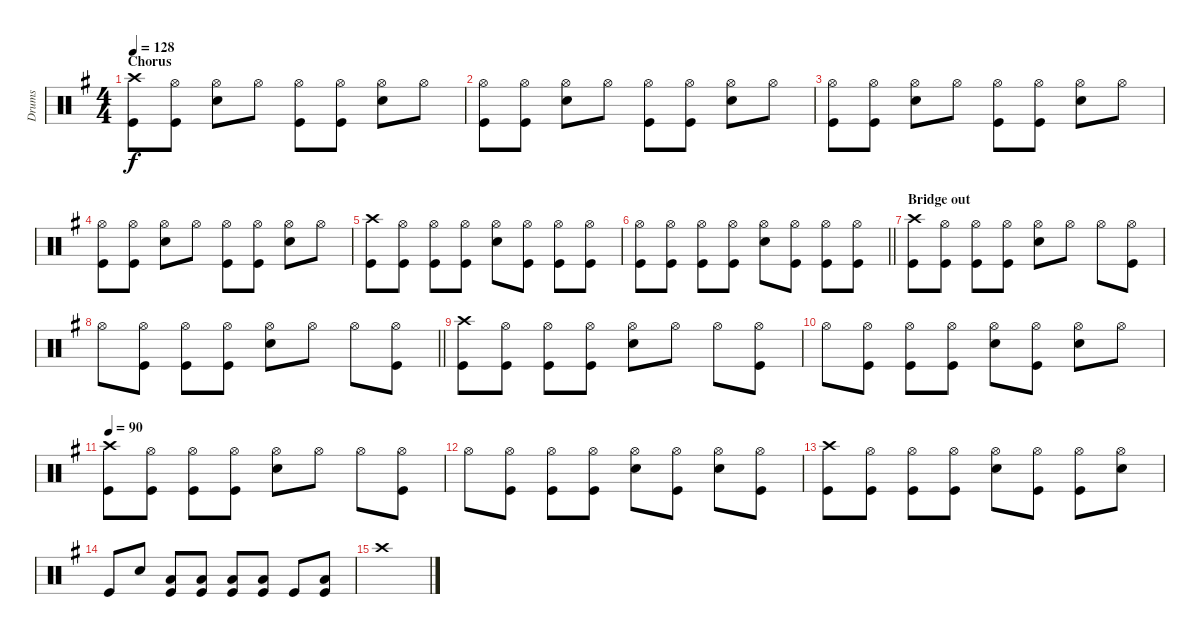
\track ("Drums" "Drums") {instrument percussion}
\staff {score}
\articulation defaults
\ts (4 4)
\section ("" "Chorus")
\tempo 128
\clef neutral
\ks g
("Crash high (hit)" "Kick (hit)").8{dy f} ("Hi-Hat (open)" "Kick (hit)").8 ("Hi-Hat (open)" "Electric Snare (hit)").8 "Hi-Hat (open)".8 ("Hi-Hat (open)" "Kick (hit)").8 ("Hi-Hat (open)" "Kick (hit)").8 ("Hi-Hat (open)" "Electric Snare (hit)").8 "Hi-Hat (open)".8 |
("Hi-Hat (open)" "Kick (hit)").8 ("Hi-Hat (open)" "Kick (hit)").8 ("Hi-Hat (open)" "Electric Snare (hit)").8 "Hi-Hat (open)".8 ("Hi-Hat (open)" "Kick (hit)").8 ("Hi-Hat (open)" "Kick (hit)").8 ("Hi-Hat (open)" "Electric Snare (hit)").8 "Hi-Hat (open)".8 |
("Hi-Hat (open)" "Kick (hit)").8 ("Hi-Hat (open)" "Kick (hit)").8 ("Hi-Hat (open)" "Electric Snare (hit)").8 "Hi-Hat (open)".8 ("Hi-Hat (open)" "Kick (hit)").8 ("Hi-Hat (open)" "Kick (hit)").8 ("Hi-Hat (open)" "Electric Snare (hit)").8 "Hi-Hat (open)".8 |
("Hi-Hat (open)" "Kick (hit)").8 ("Hi-Hat (open)" "Kick (hit)").8 ("Hi-Hat (open)" "Electric Snare (hit)").8 "Hi-Hat (open)".8 ("Hi-Hat (open)" "Kick (hit)").8 ("Hi-Hat (open)" "Kick (hit)").8 ("Hi-Hat (open)" "Electric Snare (hit)").8 "Hi-Hat (open)".8 |
("Crash high (hit)" "Kick (hit)").8 ("Hi-Hat (open)" "Kick (hit)").8 ("Hi-Hat (open)" "Kick (hit)").8 ("Hi-Hat (open)" "Kick (hit)").8 ("Hi-Hat (open)" "Electric Snare (hit)").8 ("Hi-Hat (open)" "Kick (hit)").8 ("Hi-Hat (open)" "Kick (hit)").8 ("Hi-Hat (open)" "Kick (hit)").8 |
\barLineRight lightlight
("Hi-Hat (open)" "Kick (hit)").8 ("Hi-Hat (open)" "Kick (hit)").8 ("Hi-Hat (open)" "Kick (hit)").8 ("Hi-Hat (open)" "Kick (hit)").8 ("Hi-Hat (open)" "Electric Snare (hit)").8 ("Hi-Hat (open)" "Kick (hit)").8 ("Hi-Hat (open)" "Kick (hit)").8 ("Hi-Hat (open)" "Kick (hit)").8 |
\section ("" "Bridge out")
("Crash high (hit)" "Kick (hit)").8 ("Hi-Hat (open)" "Kick (hit)").8 ("Hi-Hat (open)" "Kick (hit)").8 ("Hi-Hat (open)" "Kick (hit)").8 ("Hi-Hat (open)" "Electric Snare (hit)").8 "Hi-Hat (open)".8 "Hi-Hat (open)".8 ("Hi-Hat (open)" "Kick (hit)").8 |
\barLineRight lightlight "Hi-Hat (open)".8
("Hi-Hat (open)" "Kick (hit)").8 ("Hi-Hat (open)" "Kick (hit)").8 ("Hi-Hat (open)" "Kick (hit)").8 ("Hi-Hat (open)" "Electric Snare (hit)").8 "Hi-Hat (open)".8 "Hi-Hat (open)".8 ("Hi-Hat (open)" "Kick (hit)").8 |
("Crash high (hit)" "Kick (hit)").8 ("Hi-Hat (open)" "Kick (hit)").8 ("Hi-Hat (open)" "Kick (hit)").8 ("Hi-Hat (open)" "Kick (hit)").8 ("Hi-Hat (open)" "Electric Snare (hit)").8 "Hi-Hat (open)".8 "Hi-Hat (open)".8 ("Hi-Hat (open)" "Kick (hit)").8 |
"Hi-Hat (open)".8 ("Hi-Hat (open)" "Kick (hit)").8 ("Hi-Hat (open)" "Kick (hit)").8 ("Hi-Hat (open)" "Kick (hit)").8 ("Hi-Hat (open)" "Electric Snare (hit)").8 ("Hi-Hat (open)" "Kick (hit)").8 ("Hi-Hat (open)" "Electric Snare (hit)").8 "Hi-Hat (open)".8 |
\tempo 90
("Crash high (hit)" "Kick (hit)").8 ("Hi-Hat (open)" "Kick (hit)").8 ("Hi-Hat (open)" "Kick (hit)").8 ("Hi-Hat (open)" "Kick (hit)").8 ("Hi-Hat (open)" "Electric Snare (hit)").8 "Hi-Hat (open)".8 "Hi-Hat (open)".8 ("Hi-Hat (open)" "Kick (hit)").8 |
"Hi-Hat (open)".8 ("Hi-Hat (open)" "Kick (hit)").8 ("Hi-Hat (open)" "Kick (hit)").8 ("Hi-Hat (open)" "Kick (hit)").8 ("Hi-Hat (open)" "Electric Snare (hit)").8 ("Hi-Hat (open)" "Kick (hit)").8 ("Hi-Hat (open)" "Electric Snare (hit)").8 ("Hi-Hat (open)" "Kick (hit)").8 |
("Crash high (hit)" "Kick (hit)").8 ("Hi-Hat (open)" "Kick (hit)").8 ("Hi-Hat (open)" "Kick (hit)").8 ("Hi-Hat (open)" "Kick (hit)").8 ("Hi-Hat (open)" "Electric Snare (hit)").8 ("Hi-Hat (open)" "Kick (hit)").8 ("Hi-Hat (open)" "Kick (hit)").8 ("Hi-Hat (open)" "Electric Snare (hit)").8 |
"Kick (hit)".8 "Electric Snare (hit)".8 ("Low Floor Tom (hit)" "Kick (hit)").8 ("Low Floor Tom (hit)" "Kick (hit)").8 ("Low Tom (hit)" "Kick (hit)").8 ("Low Tom (hit)" "Kick (hit)").8 "Kick (hit)".8 ("Low Floor Tom (hit)" "Kick (hit)").8 |
"Crash high (hit)".1
